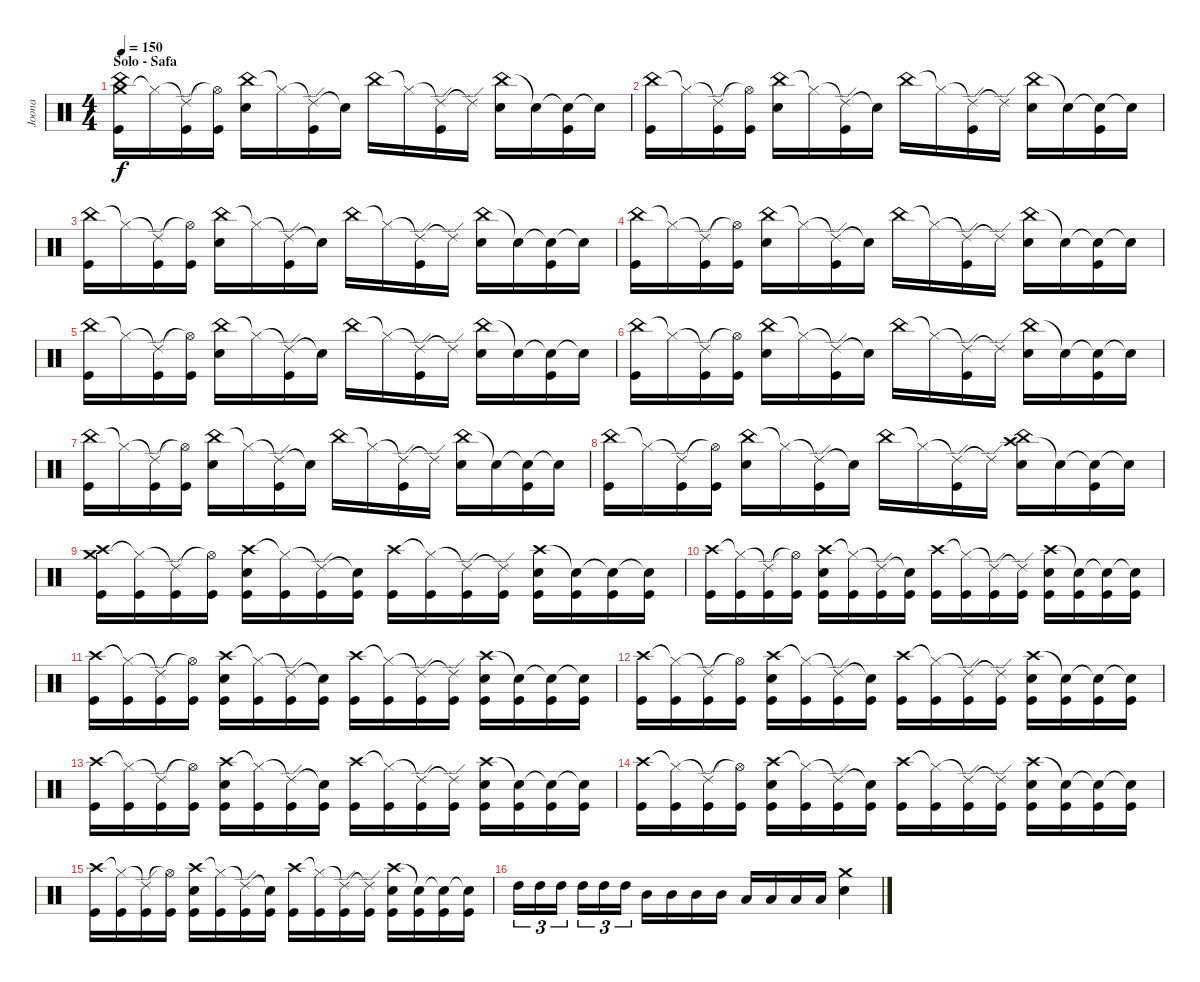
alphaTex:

\track ("Joona" "Joona") {instrument percussion}
\staff {score}
\articulation defaults
\ts (4 4)
\section ("" "Solo - Safa")
\tempo 150
\clef neutral
\ks c
("Crash medium (hit)" "China (hit)" "Kick (hit)").16{dy f} "Hi-Hat (closed)"{t}.16 ("Ride (edge) 2"{t} "Kick (hit)").16 ("Hi-Hat (open)"{t} "Kick (hit)").16 ("China (hit)" "Snare (hit) 2").16 "Hi-Hat (closed)"{t}.16 ("Ride (edge) 2"{t} "Kick (hit)").16 "Snare (hit)"{t}.16 "China (hit)".16 "Hi-Hat (closed)"{t}.16 ("Ride (edge) 2"{t} "Kick (hit)").16 "Ride (edge) 2"{t}.16 ("China (hit)" "Snare (hit) 2").16 "Snare (hit)"{t}.16 ("Snare (hit)"{t} "Kick (hit)").16 "Snare (hit)"{t}.16 |
("China (hit)" "Kick (hit)").16 "Hi-Hat (closed)"{t}.16 ("Ride (edge) 2"{t} "Kick (hit)").16 ("Hi-Hat (open)"{t} "Kick (hit)").16 ("China (hit)" "Snare (hit) 2").16 "Hi-Hat (closed)"{t}.16 ("Ride (edge) 2"{t} "Kick (hit)").16 "Snare (hit)"{t}.16 "China (hit)".16 "Hi-Hat (closed)"{t}.16 ("Ride (edge) 2"{t} "Kick (hit)").16 "Ride (edge) 2"{t}.16 ("China (hit)" "Snare (hit) 2").16 "Snare (hit)"{t}.16 ("Snare (hit)"{t} "Kick (hit)").16 "Snare (hit)"{t}.16 |
("China (hit)" "Kick (hit)").16 "Hi-Hat (closed)"{t}.16 ("Ride (edge) 2"{t} "Kick (hit)").16 ("Hi-Hat (open)"{t} "Kick (hit)").16 ("China (hit)" "Snare (hit) 2").16 "Hi-Hat (closed)"{t}.16 ("Ride (edge) 2"{t} "Kick (hit)").16 "Snare (hit)"{t}.16 "China (hit)".16 "Hi-Hat (closed)"{t}.16 ("Ride (edge) 2"{t} "Kick (hit)").16 "Ride (edge) 2"{t}.16 ("China (hit)" "Snare (hit) 2").16 "Snare (hit)"{t}.16 ("Snare (hit)"{t} "Kick (hit)").16 "Snare (hit)"{t}.16 |
("China (hit)" "Kick (hit)").16 "Hi-Hat (closed)"{t}.16 ("Ride (edge) 2"{t} "Kick (hit)").16 ("Hi-Hat (open)"{t} "Kick (hit)").16 ("China (hit)" "Snare (hit) 2").16 "Hi-Hat (closed)"{t}.16 ("Ride (edge) 2"{t} "Kick (hit)").16 "Snare (hit)"{t}.16 "China (hit)".16 "Hi-Hat (closed)"{t}.16 ("Ride (edge) 2"{t} "Kick (hit)").16 "Ride (edge) 2"{t}.16 ("China (hit)" "Snare (hit) 2").16 "Snare (hit)"{t}.16 ("Snare (hit)"{t} "Kick (hit)").16 "Snare (hit)"{t}.16 |
("China (hit)" "Kick (hit)").16 "Hi-Hat (closed)"{t}.16 ("Ride (edge) 2"{t} "Kick (hit)").16 ("Hi-Hat (open)"{t} "Kick (hit)").16 ("China (hit)" "Snare (hit) 2").16 "Hi-Hat (closed)"{t}.16 ("Ride (edge) 2"{t} "Kick (hit)").16 "Snare (hit)"{t}.16 "China (hit)".16 "Hi-Hat (closed)"{t}.16 ("Ride (edge) 2"{t} "Kick (hit)").16 "Ride (edge) 2"{t}.16 ("China (hit)" "Snare (hit) 2").16 "Snare (hit)"{t}.16 ("Snare (hit)"{t} "Kick (hit)").16 "Snare (hit)"{t}.16 |
("China (hit)" "Kick (hit)").16 "Hi-Hat (closed)"{t}.16 ("Ride (edge) 2"{t} "Kick (hit)").16 ("Hi-Hat (open)"{t} "Kick (hit)").16 ("China (hit)" "Snare (hit) 2").16 "Hi-Hat (closed)"{t}.16 ("Ride (edge) 2"{t} "Kick (hit)").16 "Snare (hit)"{t}.16 "China (hit)".16 "Hi-Hat (closed)"{t}.16 ("Ride (edge) 2"{t} "Kick (hit)").16 "Ride (edge) 2"{t}.16 ("China (hit)" "Snare (hit) 2").16 "Snare (hit)"{t}.16 ("Snare (hit)"{t} "Kick (hit)").16 "Snare (hit)"{t}.16 |
("China (hit)" "Kick (hit)").16 "Hi-Hat (closed)"{t}.16 ("Ride (edge) 2"{t} "Kick (hit)").16 ("Hi-Hat (open)"{t} "Kick (hit)").16 ("China (hit)" "Snare (hit) 2").16 "Hi-Hat (closed)"{t}.16 ("Ride (edge) 2"{t} "Kick (hit)").16 "Snare (hit)"{t}.16 "China (hit)".16 "Hi-Hat (closed)"{t}.16 ("Ride (edge) 2"{t} "Kick (hit)").16 "Ride (edge) 2"{t}.16 ("China (hit)" "Snare (hit) 2").16 "Snare (hit)"{t}.16 ("Snare (hit)"{t} "Kick (hit)").16 "Snare (hit)"{t}.16 |
("China (hit)" "Kick (hit)").16 "Hi-Hat (closed)"{t}.16 ("Ride (edge) 2"{t} "Kick (hit)").16 ("Hi-Hat (open)"{t} "Kick (hit)").16 ("China (hit)" "Snare (hit) 2").16 "Hi-Hat (closed)"{t}.16 ("Ride (edge) 2"{t} "Kick (hit)").16 "Snare (hit)"{t}.16 "China (hit)".16 "Hi-Hat (closed)"{t}.16 ("Ride (edge) 2"{t} "Kick (hit)").16 "Ride (edge) 2"{t}.16 ("Crash high (hit)" "China (hit)" "Snare (hit) 2").16 "Snare (hit)"{t}.16 ("Snare (hit)"{t} "Kick (hit)").16 "Snare (hit)"{t}.16 |
("Crash medium (hit)" "Crash high (hit)" "Kick (hit)").16 ("Hi-Hat (closed)"{t} "Kick (hit)").16 ("Ride (edge) 2"{t} "Kick (hit)").16 ("Hi-Hat (open)"{t} "Kick (hit)").16 ("Crash high (hit)" "Snare (hit) 2" "Kick (hit)").16 ("Hi-Hat (closed)"{t} "Kick (hit)").16 ("Ride (edge) 2"{t} "Kick (hit)").16 ("Snare (hit)"{t} "Kick (hit)").16 ("Crash high (hit)" "Kick (hit)").16 ("Hi-Hat (closed)"{t} "Kick (hit)").16 ("Ride (edge) 2"{t} "Kick (hit)").16 ("Ride (edge) 2"{t} "Kick (hit)").16 ("Crash high (hit)" "Snare (hit) 2" "Kick (hit)").16 ("Snare (hit)"{t} "Kick (hit)").16 ("Snare (hit)"{t} "Kick (hit)").16 ("Snare (hit)"{t} "Kick (hit)").16 |
("Crash high (hit)" "Kick (hit)").16 ("Hi-Hat (closed)"{t} "Kick (hit)").16 ("Ride (edge) 2"{t} "Kick (hit)").16 ("Hi-Hat (open)"{t} "Kick (hit)").16 ("Crash high (hit)" "Snare (hit) 2" "Kick (hit)").16 ("Hi-Hat (closed)"{t} "Kick (hit)").16 ("Ride (edge) 2"{t} "Kick (hit)").16 ("Snare (hit)"{t} "Kick (hit)").16 ("Crash high (hit)" "Kick (hit)").16 ("Hi-Hat (closed)"{t} "Kick (hit)").16 ("Ride (edge) 2"{t} "Kick (hit)").16 ("Ride (edge) 2"{t} "Kick (hit)").16 ("Crash high (hit)" "Snare (hit) 2" "Kick (hit)").16 ("Snare (hit)"{t} "Kick (hit)").16 ("Snare (hit)"{t} "Kick (hit)").16 ("Snare (hit)"{t} "Kick (hit)").16 |
("Crash high (hit)" "Kick (hit)").16 ("Hi-Hat (closed)"{t} "Kick (hit)").16 ("Ride (edge) 2"{t} "Kick (hit)").16 ("Hi-Hat (open)"{t} "Kick (hit)").16 ("Crash high (hit)" "Snare (hit) 2" "Kick (hit)").16 ("Hi-Hat (closed)"{t} "Kick (hit)").16 ("Ride (edge) 2"{t} "Kick (hit)").16 ("Snare (hit)"{t} "Kick (hit)").16 ("Crash high (hit)" "Kick (hit)").16 ("Hi-Hat (closed)"{t} "Kick (hit)").16 ("Ride (edge) 2"{t} "Kick (hit)").16 ("Ride (edge) 2"{t} "Kick (hit)").16 ("Crash high (hit)" "Snare (hit) 2" "Kick (hit)").16 ("Snare (hit)"{t} "Kick (hit)").16 ("Snare (hit)"{t} "Kick (hit)").16 ("Snare (hit)"{t} "Kick (hit)").16 |
("Crash high (hit)" "Kick (hit)").16 ("Hi-Hat (closed)"{t} "Kick (hit)").16 ("Ride (edge) 2"{t} "Kick (hit)").16 ("Hi-Hat (open)"{t} "Kick (hit)").16 ("Crash high (hit)" "Snare (hit) 2" "Kick (hit)").16 ("Hi-Hat (closed)"{t} "Kick (hit)").16 ("Ride (edge) 2"{t} "Kick (hit)").16 ("Snare (hit)"{t} "Kick (hit)").16 ("Crash high (hit)" "Kick (hit)").16 ("Hi-Hat (closed)"{t} "Kick (hit)").16 ("Ride (edge) 2"{t} "Kick (hit)").16 ("Ride (edge) 2"{t} "Kick (hit)").16 ("Crash high (hit)" "Snare (hit) 2" "Kick (hit)").16 ("Snare (hit)"{t} "Kick (hit)").16 ("Snare (hit)"{t} "Kick (hit)").16 ("Snare (hit)"{t} "Kick (hit)").16 |
("Crash high (hit)" "Kick (hit)").16 ("Hi-Hat (closed)"{t} "Kick (hit)").16 ("Ride (edge) 2"{t} "Kick (hit)").16 ("Hi-Hat (open)"{t} "Kick (hit)").16 ("Crash high (hit)" "Snare (hit) 2" "Kick (hit)").16 ("Hi-Hat (closed)"{t} "Kick (hit)").16 ("Ride (edge) 2"{t} "Kick (hit)").16 ("Snare (hit)"{t} "Kick (hit)").16 ("Crash high (hit)" "Kick (hit)").16 ("Hi-Hat (closed)"{t} "Kick (hit)").16 ("Ride (edge) 2"{t} "Kick (hit)").16 ("Ride (edge) 2"{t} "Kick (hit)").16 ("Crash high (hit)" "Snare (hit) 2" "Kick (hit)").16 ("Snare (hit)"{t} "Kick (hit)").16 ("Snare (hit)"{t} "Kick (hit)").16 ("Snare (hit)"{t} "Kick (hit)").16 |
("Crash high (hit)" "Kick (hit)").16 ("Hi-Hat (closed)"{t} "Kick (hit)").16 ("Ride (edge) 2"{t} "Kick (hit)").16 ("Hi-Hat (open)"{t} "Kick (hit)").16 ("Crash high (hit)" "Snare (hit) 2" "Kick (hit)").16 ("Hi-Hat (closed)"{t} "Kick (hit)").16 ("Ride (edge) 2"{t} "Kick (hit)").16 ("Snare (hit)"{t} "Kick (hit)").16 ("Crash high (hit)" "Kick (hit)").16 ("Hi-Hat (closed)"{t} "Kick (hit)").16 ("Ride (edge) 2"{t} "Kick (hit)").16 ("Ride (edge) 2"{t} "Kick (hit)").16 ("Crash high (hit)" "Snare (hit) 2" "Kick (hit)").16 ("Snare (hit)"{t} "Kick (hit)").16 ("Snare (hit)"{t} "Kick (hit)").16 ("Snare (hit)"{t} "Kick (hit)").16 |
("Crash high (hit)" "Kick (hit)").16 ("Hi-Hat (closed)"{t} "Kick (hit)").16 ("Ride (edge) 2"{t} "Kick (hit)").16 ("Hi-Hat (open)"{t} "Kick (hit)").16 ("Crash high (hit)" "Snare (hit) 2" "Kick (hit)").16 ("Hi-Hat (closed)"{t} "Kick (hit)").16 ("Ride (edge) 2"{t} "Kick (hit)").16 ("Snare (hit)"{t} "Kick (hit)").16 ("Crash high (hit)" "Kick (hit)").16 ("Hi-Hat (closed)"{t} "Kick (hit)").16 ("Ride (edge) 2"{t} "Kick (hit)").16 ("Ride (edge) 2"{t} "Kick (hit)").16 ("Crash high (hit)" "Snare (hit) 2" "Kick (hit)").16 ("Snare (hit)"{t} "Kick (hit)").16 ("Snare (hit)"{t} "Kick (hit)").16 ("Snare (hit)"{t} "Kick (hit)").16 |
"High Tom (hit)".16{tu (3 2)} "High Tom (hit)".16{tu (3 2)} "High Tom (hit)".16{tu (3 2)} "High Tom (hit)".16{tu (3 2)} "High Tom (hit)".16{tu (3 2)} "High Tom (hit)".16{tu (3 2)} "Mid Tom (hit)".16 "Mid Tom (hit)".16 "Mid Tom (hit)".16 "Mid Tom (hit)".16 "Low Tom (hit)".16 "Low Tom (hit)".16 "Low Tom (hit)".16 "Low Tom (hit)".16 ("Crash medium (hit)" "Snare (hit) 2").4
